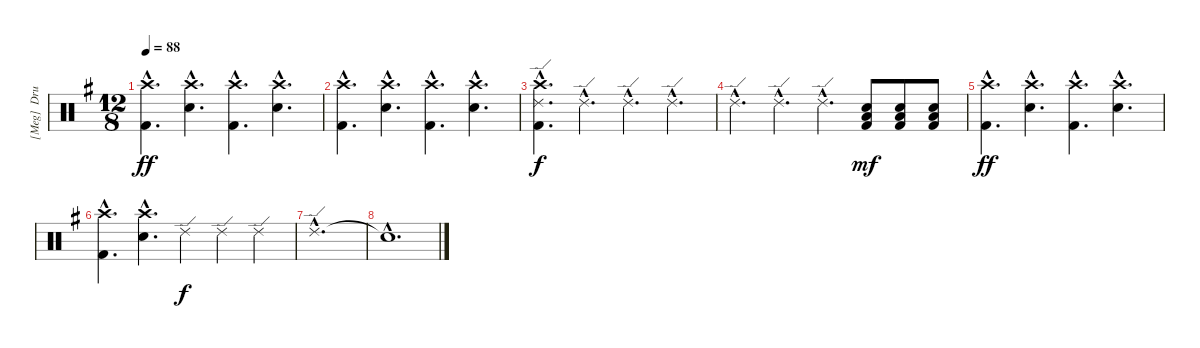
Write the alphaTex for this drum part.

\track ("[Meg]  Drums" "[Meg]  Dru") {instrument percussion}
\staff {score}
\articulation defaults
\ts (12 8)
\tempo 88
\clef neutral
\ks g
("Crash high (hit)"{hac} "Kick (hit) 2"{hac}).4{d dy ff} ("Crash high (hit)"{hac} "Snare (hit) 2"{hac}).4{d} ("Crash high (hit)"{hac} "Kick (hit) 2"{hac}).4{d} ("Crash high (hit)"{hac} "Snare (hit) 2"{hac}).4{d} |
("Crash high (hit)"{hac} "Kick (hit) 2"{hac}).4{d} ("Crash high (hit)"{hac} "Snare (hit) 2"{hac}).4{d} ("Crash high (hit)"{hac} "Kick (hit) 2"{hac}).4{d} ("Crash high (hit)"{hac} "Snare (hit) 2"{hac}).4{d} |
("Crash high (hit)"{hac} "Ride (edge) 2"{hac} "Kick (hit) 2"{hac}).4{d dy f} "Ride (edge) 2"{hac}.4{d} "Ride (edge) 2"{hac}.4{d} "Ride (edge) 2"{hac}.4{d} |
"Ride (edge) 2"{hac}.4{d} "Ride (edge) 2"{hac}.4{d} "Ride (edge) 2"{hac}.4{d} ("Snare (hit) 2" "Low Floor Tom (hit)" "Kick (hit) 2").8{dy mf} ("Snare (hit) 2" "Low Floor Tom (hit)" "Kick (hit) 2").8 ("Snare (hit) 2" "Low Floor Tom (hit)" "Kick (hit) 2").8 |
("Crash high (hit)"{hac} "Kick (hit) 2"{hac}).4{d dy ff} ("Crash high (hit)"{hac} "Snare (hit) 2"{hac}).4{d} ("Crash high (hit)"{hac} "Kick (hit) 2"{hac}).4{d} ("Crash high (hit)"{hac} "Snare (hit) 2"{hac}).4{d} |
("Crash high (hit)"{hac} "Kick (hit) 2"{hac}).4{d} ("Crash high (hit)"{hac} "Snare (hit) 2"{hac}).4{d} "Ride (edge) 2".4{dy f} "Ride (edge) 2".4 "Ride (edge) 2".4 |
"Ride (edge) 2"{hac}.1{d} |
"Snare (hit)"{hac t}.1{d}
